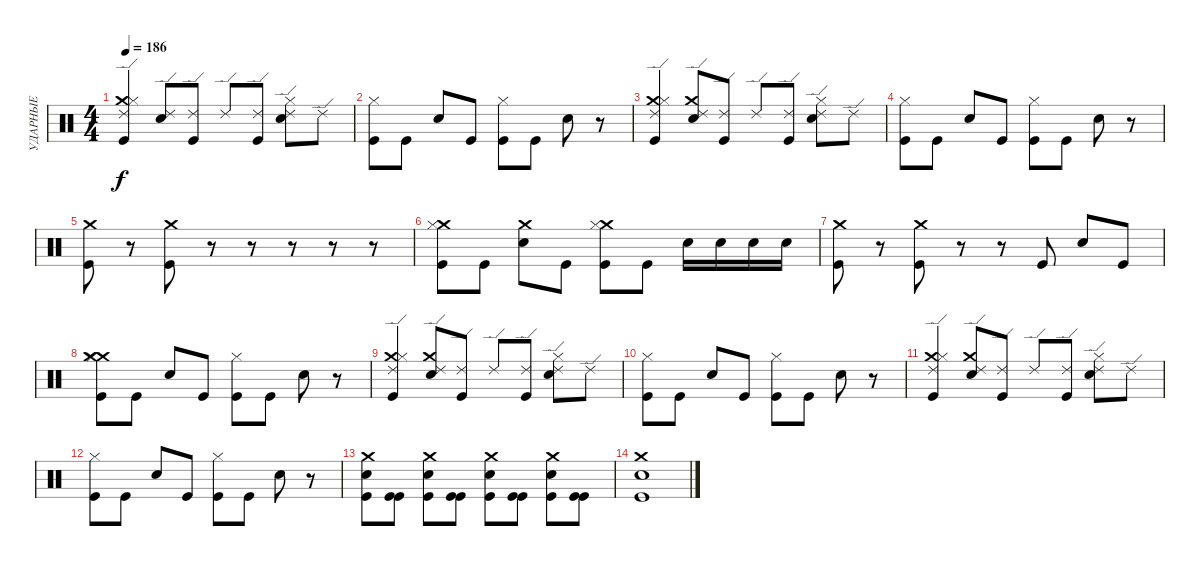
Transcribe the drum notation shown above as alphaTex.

\track ("УДАРНЫЕ" "УДАРНЫЕ") {instrument percussion}
\staff {score}
\articulation defaults
\ts (4 4)
\tempo 186
\clef neutral
\ks c
("Ride (edge) 2" "Crash medium (hit)" "Hi-Hat (closed)" "Kick (hit)").4{dy f} ("Ride (edge) 2" "Electric Snare (hit)").8 ("Ride (edge) 2" "Kick (hit)").8 "Ride (edge) 2".8 ("Ride (edge) 2" "Kick (hit)").8 ("Ride (edge) 2" "Hi-Hat (closed)" "Electric Snare (hit)").8 "Ride (edge) 2".8 |
("Hi-Hat (closed)" "Kick (hit)").8 "Kick (hit)".8 "Electric Snare (hit)".8 "Kick (hit)".8 ("Hi-Hat (closed)" "Kick (hit)").8 "Kick (hit)".8 "Electric Snare (hit)".8 r.8 |
("Ride (edge) 2" "Crash medium (hit)" "Hi-Hat (closed)" "Kick (hit)").4 ("Ride (edge) 2" "Crash medium (hit)" "Electric Snare (hit)").8 ("Ride (edge) 2" "Kick (hit)").8 "Ride (edge) 2".8 ("Ride (edge) 2" "Kick (hit)").8 ("Ride (edge) 2" "Hi-Hat (closed)" "Electric Snare (hit)").8 "Ride (edge) 2".8 |
("Hi-Hat (closed)" "Kick (hit)").8 "Kick (hit)".8 "Electric Snare (hit)".8 "Kick (hit)".8 ("Hi-Hat (closed)" "Kick (hit)").8 "Kick (hit)".8 "Electric Snare (hit)".8 r.8 |
("Crash medium (hit)" "Kick (hit)").8 r.8 ("Kick (hit)" "Crash medium (hit)").8 r.8 r.8 r.8 r.8 r.8 |
("Crash medium (hit)" "Hi-Hat (closed)" "Kick (hit)").8 "Kick (hit)".8 ("Crash medium (hit)" "Electric Snare (hit)").8 "Kick (hit)".8 ("Crash medium (hit)" "Hi-Hat (closed)" "Kick (hit)").8 "Kick (hit)".8 "Electric Snare (hit)".16 "Electric Snare (hit)".16 "Electric Snare (hit)".16 "Electric Snare (hit)".16 |
("Crash medium (hit)" "Kick (hit)").8 r.8 ("Kick (hit)" "Crash medium (hit)").8 r.8 r.8 "Kick (hit)".8 "Electric Snare (hit)".8 "Kick (hit)".8 |
("Crash medium (hit)" "Crash medium (hit)" "Hi-Hat (closed)" "Kick (hit)").8 "Kick (hit)".8 "Electric Snare (hit)".8 "Kick (hit)".8 ("Hi-Hat (closed)" "Kick (hit)").8 "Kick (hit)".8 "Electric Snare (hit)".8 r.8 |
("Ride (edge) 2" "Crash medium (hit)" "Hi-Hat (closed)" "Kick (hit)").4 ("Ride (edge) 2" "Crash medium (hit)" "Electric Snare (hit)").8 ("Ride (edge) 2" "Kick (hit)").8 "Ride (edge) 2".8 ("Ride (edge) 2" "Kick (hit)").8 ("Ride (edge) 2" "Hi-Hat (closed)" "Electric Snare (hit)").8 "Ride (edge) 2".8 |
("Hi-Hat (closed)" "Kick (hit)").8 "Kick (hit)".8 "Electric Snare (hit)".8 "Kick (hit)".8 ("Hi-Hat (closed)" "Kick (hit)").8 "Kick (hit)".8 "Electric Snare (hit)".8 r.8 |
("Ride (edge) 2" "Crash medium (hit)" "Hi-Hat (closed)" "Kick (hit)").4 ("Ride (edge) 2" "Crash medium (hit)" "Electric Snare (hit)").8 ("Ride (edge) 2" "Kick (hit)").8 "Ride (edge) 2".8 ("Ride (edge) 2" "Kick (hit)").8 ("Ride (edge) 2" "Hi-Hat (closed)" "Electric Snare (hit)").8 "Ride (edge) 2".8 |
("Hi-Hat (closed)" "Kick (hit)").8 "Kick (hit)".8 "Electric Snare (hit)".8 "Kick (hit)".8 ("Hi-Hat (closed)" "Kick (hit)").8 "Kick (hit)".8 "Electric Snare (hit)".8 r.8 |
("Electric Snare (hit)" "Crash medium (hit)" "Kick (hit)").8 ("Kick (hit)" "Kick (hit)").8 ("Electric Snare (hit)" "Crash medium (hit)" "Kick (hit)").8 ("Kick (hit)" "Kick (hit)").8 ("Electric Snare (hit)" "Crash medium (hit)" "Kick (hit)").8 ("Kick (hit)" "Kick (hit)").8 ("Electric Snare (hit)" "Crash medium (hit)" "Kick (hit)").8 ("Kick (hit)" "Kick (hit)").8 |
("Electric Snare (hit)" "Crash medium (hit)" "Kick (hit)").1
